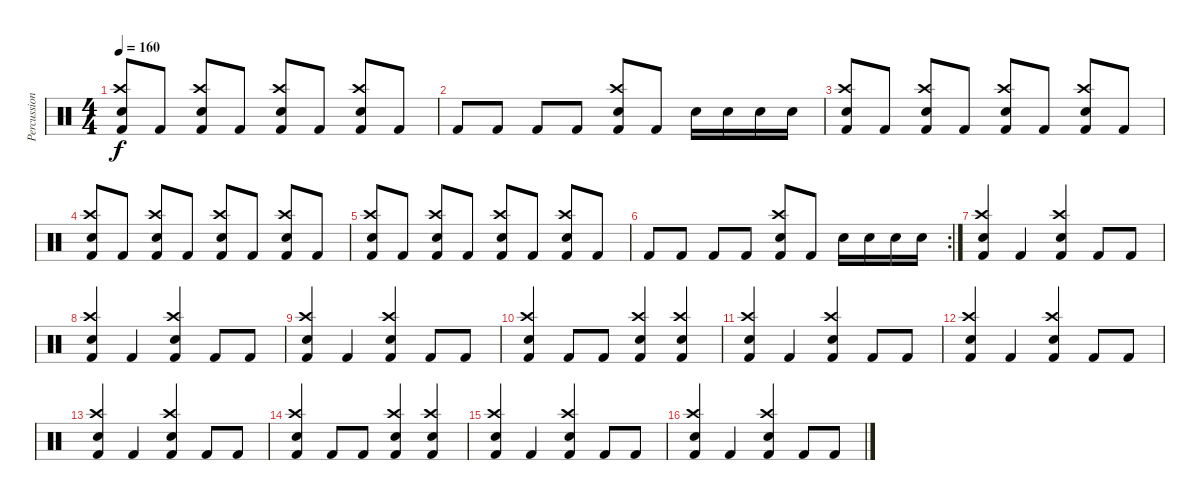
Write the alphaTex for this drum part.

\track ("Percussions" "Percussion") {instrument percussion}
\staff {score}
\articulation defaults
\ts (4 4)
\tempo 160
\clef neutral
\ks c
("Electric Snare (hit)" "Crash high (hit)" "Kick (hit) 2").8{dy f} "Kick (hit) 2".8 ("Electric Snare (hit)" "Crash high (hit)" "Kick (hit) 2").8 "Kick (hit) 2".8 ("Electric Snare (hit)" "Crash high (hit)" "Kick (hit) 2").8 "Kick (hit) 2".8 ("Electric Snare (hit)" "Crash high (hit)" "Kick (hit) 2").8 "Kick (hit) 2".8 |
"Kick (hit) 2".8 "Kick (hit) 2".8 "Kick (hit) 2".8 "Kick (hit) 2".8 ("Crash high (hit)" "Kick (hit) 2" "Electric Snare (hit)").8 "Kick (hit) 2".8 "Electric Snare (hit)".16 "Electric Snare (hit)".16 "Electric Snare (hit)".16 "Electric Snare (hit)".16 |
("Electric Snare (hit)" "Crash high (hit)" "Kick (hit) 2").8 "Kick (hit) 2".8 ("Electric Snare (hit)" "Crash high (hit)" "Kick (hit) 2").8 "Kick (hit) 2".8 ("Electric Snare (hit)" "Crash high (hit)" "Kick (hit) 2").8 "Kick (hit) 2".8 ("Electric Snare (hit)" "Crash high (hit)" "Kick (hit) 2").8 "Kick (hit) 2".8 |
("Electric Snare (hit)" "Crash high (hit)" "Kick (hit) 2").8 "Kick (hit) 2".8 ("Electric Snare (hit)" "Crash high (hit)" "Kick (hit) 2").8 "Kick (hit) 2".8 ("Electric Snare (hit)" "Crash high (hit)" "Kick (hit) 2").8 "Kick (hit) 2".8 ("Electric Snare (hit)" "Crash high (hit)" "Kick (hit) 2").8 "Kick (hit) 2".8 |
("Electric Snare (hit)" "Crash high (hit)" "Kick (hit) 2").8 "Kick (hit) 2".8 ("Electric Snare (hit)" "Crash high (hit)" "Kick (hit) 2").8 "Kick (hit) 2".8 ("Electric Snare (hit)" "Crash high (hit)" "Kick (hit) 2").8 "Kick (hit) 2".8 ("Electric Snare (hit)" "Crash high (hit)" "Kick (hit) 2").8 "Kick (hit) 2".8 |
\rc 2 "Kick (hit) 2".8 "Kick (hit) 2".8 "Kick (hit) 2".8 "Kick (hit) 2".8
("Crash high (hit)" "Kick (hit) 2" "Electric Snare (hit)").8 "Kick (hit) 2".8 "Electric Snare (hit)".16 "Electric Snare (hit)".16 "Electric Snare (hit)".16 "Electric Snare (hit)".16 |
("Kick (hit) 2" "Crash high (hit)" "Electric Snare (hit)").4 "Kick (hit) 2".4 ("Kick (hit) 2" "Crash high (hit)" "Electric Snare (hit)").4 "Kick (hit) 2".8 "Kick (hit) 2".8 |
("Kick (hit) 2" "Crash high (hit)" "Electric Snare (hit)").4 "Kick (hit) 2".4 ("Kick (hit) 2" "Crash high (hit)" "Electric Snare (hit)").4 "Kick (hit) 2".8 "Kick (hit) 2".8 |
("Kick (hit) 2" "Crash high (hit)" "Electric Snare (hit)").4 "Kick (hit) 2".4 ("Kick (hit) 2" "Crash high (hit)" "Electric Snare (hit)").4 "Kick (hit) 2".8 "Kick (hit) 2".8 |
("Electric Snare (hit)" "Kick (hit) 2" "Crash high (hit)").4 "Kick (hit) 2".8 "Kick (hit) 2".8 ("Kick (hit) 2" "Crash high (hit)" "Electric Snare (hit)").4 ("Kick (hit) 2" "Crash high (hit)" "Electric Snare (hit)").4 |
("Kick (hit) 2" "Crash high (hit)" "Electric Snare (hit)").4 "Kick (hit) 2".4 ("Kick (hit) 2" "Crash high (hit)" "Electric Snare (hit)").4 "Kick (hit) 2".8 "Kick (hit) 2".8 |
("Kick (hit) 2" "Crash high (hit)" "Electric Snare (hit)").4 "Kick (hit) 2".4 ("Kick (hit) 2" "Crash high (hit)" "Electric Snare (hit)").4 "Kick (hit) 2".8 "Kick (hit) 2".8 |
("Kick (hit) 2" "Crash high (hit)" "Electric Snare (hit)").4 "Kick (hit) 2".4 ("Kick (hit) 2" "Crash high (hit)" "Electric Snare (hit)").4 "Kick (hit) 2".8 "Kick (hit) 2".8 |
("Electric Snare (hit)" "Kick (hit) 2" "Crash high (hit)").4 "Kick (hit) 2".8 "Kick (hit) 2".8 ("Kick (hit) 2" "Crash high (hit)" "Electric Snare (hit)").4 ("Kick (hit) 2" "Crash high (hit)" "Electric Snare (hit)").4 |
("Kick (hit) 2" "Crash high (hit)" "Electric Snare (hit)").4 "Kick (hit) 2".4 ("Kick (hit) 2" "Crash high (hit)" "Electric Snare (hit)").4 "Kick (hit) 2".8 "Kick (hit) 2".8 |
("Kick (hit) 2" "Crash high (hit)" "Electric Snare (hit)").4 "Kick (hit) 2".4 ("Kick (hit) 2" "Crash high (hit)" "Electric Snare (hit)").4 "Kick (hit) 2".8 "Kick (hit) 2".8
